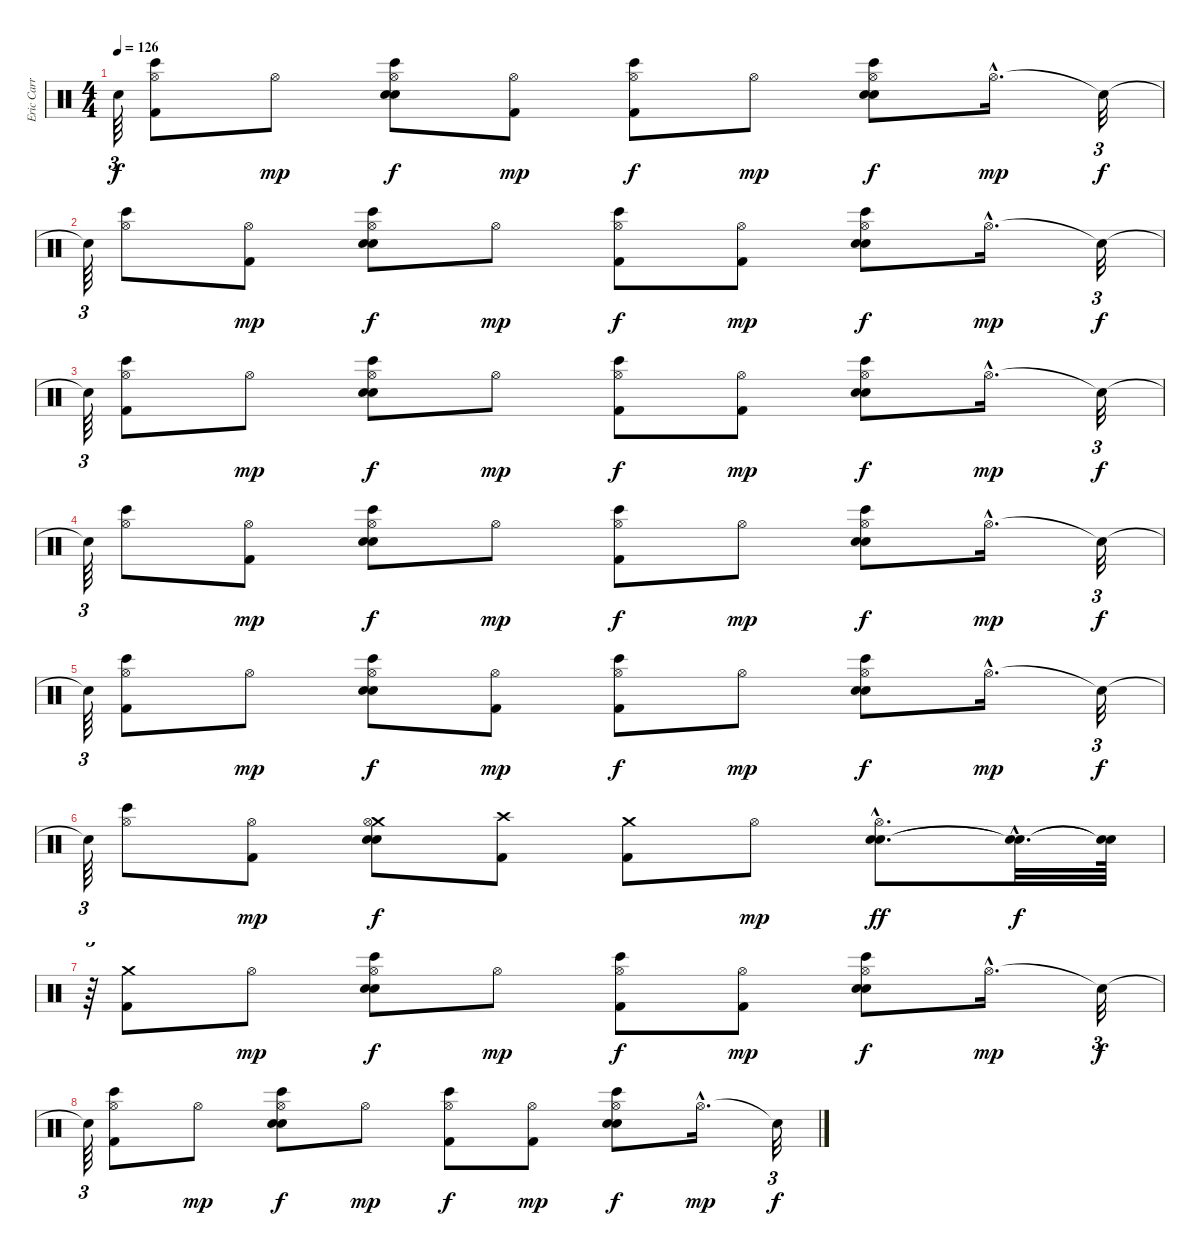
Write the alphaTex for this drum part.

\track ("Eric Carr" "Eric Carr") {instrument percussion}
\staff {score}
\articulation defaults
\ts (4 4)
\tempo 126
\clef neutral
\ks c "Snare (hit)"{t}.64{tu (3 2) dy f}
("Bongo High (hit)" "Hi-Hat (open)" "Kick (hit) 2").8 "Hi-Hat (open)".8{dy mp} ("Bongo High (hit)" "Hi-Hat (open)" "Snare (hit) 2" "Electric Snare (hit)").8{dy f} ("Kick (hit) 2" "Hi-Hat (open)").8{dy mp} ("Bongo High (hit)" "Kick (hit) 2" "Hi-Hat (open)").8{dy f} "Hi-Hat (open)".8{dy mp} ("Bongo High (hit)" "Electric Snare (hit)" "Snare (hit) 2" "Hi-Hat (open)").8{dy f} "Hi-Hat (open)"{hac}.16{d dy mp} "Snare (hit)"{t}.32{tu (3 2) dy f} |
"Snare (hit)"{t}.64{tu (3 2)} ("Bongo High (hit)" "Hi-Hat (open)").8 ("Kick (hit) 2" "Hi-Hat (open)").8{dy mp} ("Bongo High (hit)" "Hi-Hat (open)" "Snare (hit) 2" "Electric Snare (hit)").8{dy f} "Hi-Hat (open)".8{dy mp} ("Bongo High (hit)" "Kick (hit) 2" "Hi-Hat (open)").8{dy f} ("Kick (hit) 2" "Hi-Hat (open)").8{dy mp} ("Bongo High (hit)" "Electric Snare (hit)" "Snare (hit) 2" "Hi-Hat (open)").8{dy f} "Hi-Hat (open)"{hac}.16{d dy mp} "Snare (hit)"{t}.32{tu (3 2) dy f} |
"Snare (hit)"{t}.64{tu (3 2)} ("Hi-Hat (open)" "Bongo High (hit)" "Kick (hit) 2").8 "Hi-Hat (open)".8{dy mp} ("Bongo High (hit)" "Hi-Hat (open)" "Snare (hit) 2" "Electric Snare (hit)").8{dy f} "Hi-Hat (open)".8{dy mp} ("Bongo High (hit)" "Kick (hit) 2" "Hi-Hat (open)").8{dy f} ("Kick (hit) 2" "Hi-Hat (open)").8{dy mp} ("Bongo High (hit)" "Electric Snare (hit)" "Snare (hit) 2" "Hi-Hat (open)").8{dy f} "Hi-Hat (open)"{hac}.16{d dy mp} "Snare (hit)"{t}.32{tu (3 2) dy f} |
"Snare (hit)"{t}.64{tu (3 2)} ("Bongo High (hit)" "Hi-Hat (open)").8 ("Kick (hit) 2" "Hi-Hat (open)").8{dy mp} ("Bongo High (hit)" "Hi-Hat (open)" "Snare (hit) 2" "Electric Snare (hit)").8{dy f} "Hi-Hat (open)".8{dy mp} ("Bongo High (hit)" "Kick (hit) 2" "Hi-Hat (open)").8{dy f} "Hi-Hat (open)".8{dy mp} ("Bongo High (hit)" "Electric Snare (hit)" "Snare (hit) 2" "Hi-Hat (open)").8{dy f} "Hi-Hat (open)"{hac}.16{d dy mp} "Snare (hit)"{t}.32{tu (3 2) dy f} |
"Snare (hit)"{t}.64{tu (3 2)} ("Bongo High (hit)" "Hi-Hat (open)" "Kick (hit) 2").8 "Hi-Hat (open)".8{dy mp} ("Bongo High (hit)" "Hi-Hat (open)" "Snare (hit) 2" "Electric Snare (hit)").8{dy f} ("Kick (hit) 2" "Hi-Hat (open)").8{dy mp} ("Bongo High (hit)" "Kick (hit) 2" "Hi-Hat (open)").8{dy f} "Hi-Hat (open)".8{dy mp} ("Bongo High (hit)" "Electric Snare (hit)" "Snare (hit) 2" "Hi-Hat (open)").8{dy f} "Hi-Hat (open)"{hac}.16{d dy mp} "Snare (hit)"{t}.32{tu (3 2) dy f} |
"Snare (hit)"{t}.64{tu (3 2)} ("Bongo High (hit)" "Hi-Hat (open)").8 ("Kick (hit) 2" "Hi-Hat (open)").8{dy mp} ("Crash medium (hit)" "Hi-Hat (open)" "Snare (hit) 2" "Electric Snare (hit)").8{dy f} ("Kick (hit) 2" "Crash high (hit)").8 ("Crash medium (hit)" "Kick (hit) 2").8 "Hi-Hat (open)".8{dy mp} ("Electric Snare (hit)"{hac} "Snare (hit) 2"{hac} "Hi-Hat (open)").8{d dy ff} ("Snare (hit)"{hac t} "Snare (hit)"{hac t}).32{d dy f} ("Snare (hit)"{t} "Snare (hit)"{t}).64 |
r.64{tu (3 2)} ("Crash medium (hit)" "Kick (hit) 2").8 "Hi-Hat (open)".8{dy mp} ("Bongo High (hit)" "Hi-Hat (open)" "Snare (hit) 2" "Electric Snare (hit)").8{dy f} "Hi-Hat (open)".8{dy mp} ("Bongo High (hit)" "Kick (hit) 2" "Hi-Hat (open)").8{dy f} ("Kick (hit) 2" "Hi-Hat (open)").8{dy mp} ("Bongo High (hit)" "Electric Snare (hit)" "Snare (hit) 2" "Hi-Hat (open)").8{dy f} "Hi-Hat (open)"{hac}.16{d dy mp} "Snare (hit)"{t}.32{tu (3 2) dy f} |
"Snare (hit)"{t}.64{tu (3 2)} ("Bongo High (hit)" "Kick (hit) 2" "Hi-Hat (open)").8 "Hi-Hat (open)".8{dy mp} ("Bongo High (hit)" "Hi-Hat (open)" "Snare (hit) 2" "Electric Snare (hit)").8{dy f} "Hi-Hat (open)".8{dy mp} ("Bongo High (hit)" "Kick (hit) 2" "Hi-Hat (open)").8{dy f} ("Kick (hit) 2" "Hi-Hat (open)").8{dy mp} ("Bongo High (hit)" "Electric Snare (hit)" "Snare (hit) 2" "Hi-Hat (open)").8{dy f} "Hi-Hat (open)"{hac}.16{d dy mp} "Snare (hit)"{t}.32{tu (3 2) dy f}
